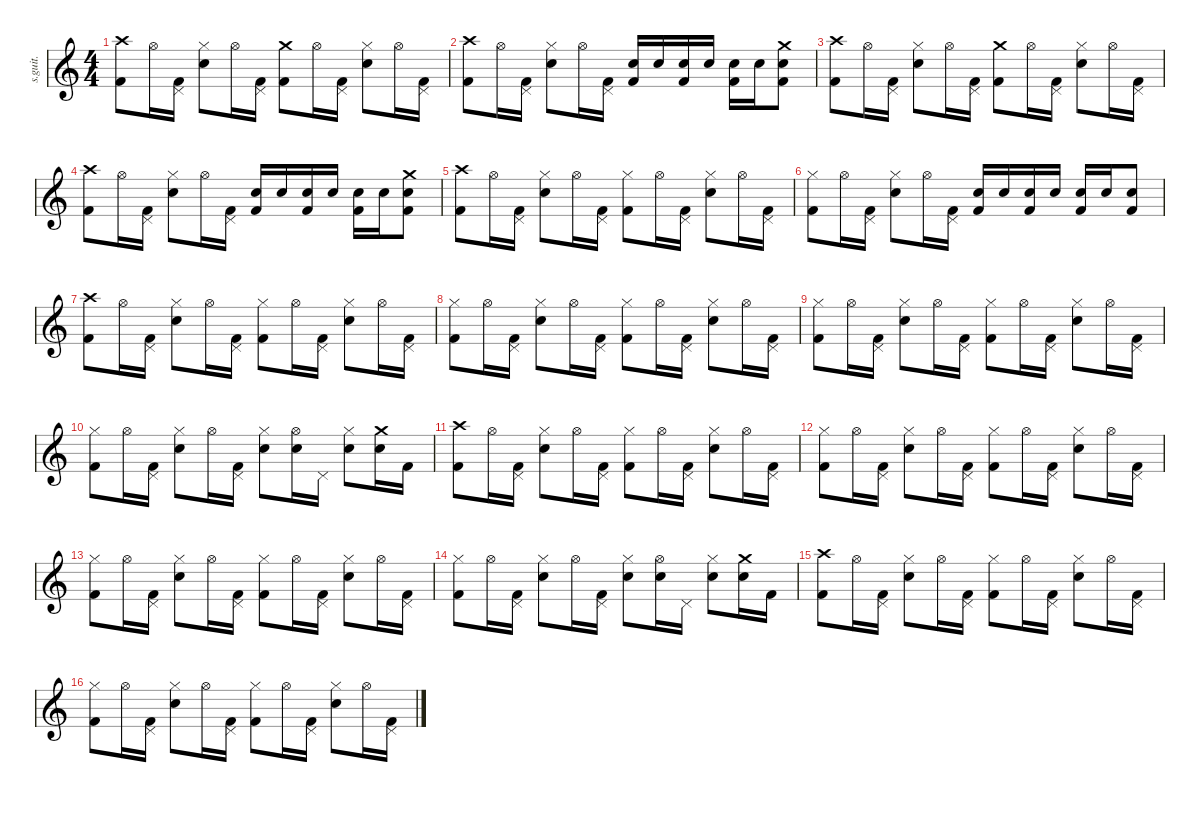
\defaultSystemsLayout 4
\hideDynamics
\bracketExtendMode nobrackets
\track ("Bob Burns (Drums)" "s.guit.") {instrument percussion}
\staff {score}
\articulation defaults
\ts (4 4)
\tempo (60 hide)
\clef g2
\ks c
("Crash high (hit)" "Kick (hit) 2").8{lyrics (0 "") lyrics (1 "") lyrics (2 "") lyrics (3 "") lyrics (4 "") dy f} "Hi-Hat (open)".16{lyrics (0 "") lyrics (1 "") lyrics (2 "") lyrics (3 "") lyrics (4 "")} ("Pedal Hi-Hat (hit)" "Kick (hit) 2").16{lyrics (0 "") lyrics (1 "") lyrics (2 "") lyrics (3 "") lyrics (4 "")} ("Hi-Hat (closed)" "Electric Snare (hit)").8{lyrics (0 "") lyrics (1 "") lyrics (2 "") lyrics (3 "") lyrics (4 "")} "Hi-Hat (open)".16{lyrics (0 "") lyrics (1 "") lyrics (2 "") lyrics (3 "") lyrics (4 "")} ("Pedal Hi-Hat (hit)" "Kick (hit) 2").16{lyrics (0 "") lyrics (1 "") lyrics (2 "") lyrics (3 "") lyrics (4 "")} ("Crash medium (hit)" "Kick (hit) 2").8{lyrics (0 "") lyrics (1 "") lyrics (2 "") lyrics (3 "") lyrics (4 "")} "Hi-Hat (open)".16{lyrics (0 "") lyrics (1 "") lyrics (2 "") lyrics (3 "") lyrics (4 "")} ("Pedal Hi-Hat (hit)" "Kick (hit) 2").16{lyrics (0 "") lyrics (1 "") lyrics (2 "") lyrics (3 "") lyrics (4 "")} ("Hi-Hat (closed)" "Electric Snare (hit)").8{lyrics (0 "") lyrics (1 "") lyrics (2 "") lyrics (3 "") lyrics (4 "")} "Hi-Hat (open)".16{lyrics (0 "") lyrics (1 "") lyrics (2 "") lyrics (3 "") lyrics (4 "")} ("Pedal Hi-Hat (hit)" "Kick (hit) 2").16{lyrics (0 "") lyrics (1 "") lyrics (2 "") lyrics (3 "") lyrics (4 "")} |
("Crash high (hit)" "Kick (hit) 2").8{lyrics (0 "") lyrics (1 "") lyrics (2 "") lyrics (3 "") lyrics (4 "")} "Hi-Hat (open)".16{lyrics (0 "") lyrics (1 "") lyrics (2 "") lyrics (3 "") lyrics (4 "")} ("Pedal Hi-Hat (hit)" "Kick (hit) 2").16{lyrics (0 "") lyrics (1 "") lyrics (2 "") lyrics (3 "") lyrics (4 "")} ("Hi-Hat (closed)" "Electric Snare (hit)").8{lyrics (0 "") lyrics (1 "") lyrics (2 "") lyrics (3 "") lyrics (4 "")} "Hi-Hat (open)".16{lyrics (0 "") lyrics (1 "") lyrics (2 "") lyrics (3 "") lyrics (4 "")} ("Pedal Hi-Hat (hit)" "Kick (hit) 2").16{lyrics (0 "") lyrics (1 "") lyrics (2 "") lyrics (3 "") lyrics (4 "")} ("Electric Snare (hit)" "Kick (hit) 2").16{lyrics (0 "") lyrics (1 "") lyrics (2 "") lyrics (3 "") lyrics (4 "")} "Electric Snare (hit)".16{lyrics (0 "") lyrics (1 "") lyrics (2 "") lyrics (3 "") lyrics (4 "")} ("Electric Snare (hit)" "Kick (hit) 2").16{lyrics (0 "") lyrics (1 "") lyrics (2 "") lyrics (3 "") lyrics (4 "")} "Electric Snare (hit)".16{lyrics (0 "") lyrics (1 "") lyrics (2 "") lyrics (3 "") lyrics (4 "")} ("Electric Snare (hit)" "Kick (hit) 2").16{lyrics (0 "") lyrics (1 "") lyrics (2 "") lyrics (3 "") lyrics (4 "")} "Electric Snare (hit)".16{lyrics (0 "") lyrics (1 "") lyrics (2 "") lyrics (3 "") lyrics (4 "")} ("Crash medium (hit)" "Electric Snare (hit)" "Kick (hit) 2").8{lyrics (0 "") lyrics (1 "") lyrics (2 "") lyrics (3 "") lyrics (4 "")} |
("Crash high (hit)" "Kick (hit) 2").8{lyrics (0 "") lyrics (1 "") lyrics (2 "") lyrics (3 "") lyrics (4 "")} "Hi-Hat (open)".16{lyrics (0 "") lyrics (1 "") lyrics (2 "") lyrics (3 "") lyrics (4 "")} ("Pedal Hi-Hat (hit)" "Kick (hit) 2").16{lyrics (0 "") lyrics (1 "") lyrics (2 "") lyrics (3 "") lyrics (4 "")} ("Hi-Hat (closed)" "Electric Snare (hit)").8{lyrics (0 "") lyrics (1 "") lyrics (2 "") lyrics (3 "") lyrics (4 "")} "Hi-Hat (open)".16{lyrics (0 "") lyrics (1 "") lyrics (2 "") lyrics (3 "") lyrics (4 "")} ("Pedal Hi-Hat (hit)" "Kick (hit) 2").16{lyrics (0 "") lyrics (1 "") lyrics (2 "") lyrics (3 "") lyrics (4 "")} ("Crash medium (hit)" "Kick (hit) 2").8{lyrics (0 "") lyrics (1 "") lyrics (2 "") lyrics (3 "") lyrics (4 "")} "Hi-Hat (open)".16{lyrics (0 "") lyrics (1 "") lyrics (2 "") lyrics (3 "") lyrics (4 "")} ("Pedal Hi-Hat (hit)" "Kick (hit) 2").16{lyrics (0 "") lyrics (1 "") lyrics (2 "") lyrics (3 "") lyrics (4 "")} ("Hi-Hat (closed)" "Electric Snare (hit)").8{lyrics (0 "") lyrics (1 "") lyrics (2 "") lyrics (3 "") lyrics (4 "")} "Hi-Hat (open)".16{lyrics (0 "") lyrics (1 "") lyrics (2 "") lyrics (3 "") lyrics (4 "")} ("Pedal Hi-Hat (hit)" "Kick (hit) 2").16{lyrics (0 "") lyrics (1 "") lyrics (2 "") lyrics (3 "") lyrics (4 "")} |
("Crash high (hit)" "Kick (hit) 2").8{lyrics (0 "") lyrics (1 "") lyrics (2 "") lyrics (3 "") lyrics (4 "")} "Hi-Hat (open)".16{lyrics (0 "") lyrics (1 "") lyrics (2 "") lyrics (3 "") lyrics (4 "")} ("Pedal Hi-Hat (hit)" "Kick (hit) 2").16{lyrics (0 "") lyrics (1 "") lyrics (2 "") lyrics (3 "") lyrics (4 "")} ("Hi-Hat (closed)" "Electric Snare (hit)").8{lyrics (0 "") lyrics (1 "") lyrics (2 "") lyrics (3 "") lyrics (4 "")} "Hi-Hat (open)".16{lyrics (0 "") lyrics (1 "") lyrics (2 "") lyrics (3 "") lyrics (4 "")} ("Pedal Hi-Hat (hit)" "Kick (hit) 2").16{lyrics (0 "") lyrics (1 "") lyrics (2 "") lyrics (3 "") lyrics (4 "")} ("Electric Snare (hit)" "Kick (hit) 2").16{lyrics (0 "") lyrics (1 "") lyrics (2 "") lyrics (3 "") lyrics (4 "")} "Electric Snare (hit)".16{lyrics (0 "") lyrics (1 "") lyrics (2 "") lyrics (3 "") lyrics (4 "")} ("Electric Snare (hit)" "Kick (hit) 2").16{lyrics (0 "") lyrics (1 "") lyrics (2 "") lyrics (3 "") lyrics (4 "")} "Electric Snare (hit)".16{lyrics (0 "") lyrics (1 "") lyrics (2 "") lyrics (3 "") lyrics (4 "")} ("Electric Snare (hit)" "Kick (hit) 2").16{lyrics (0 "") lyrics (1 "") lyrics (2 "") lyrics (3 "") lyrics (4 "")} "Electric Snare (hit)".16{lyrics (0 "") lyrics (1 "") lyrics (2 "") lyrics (3 "") lyrics (4 "")} ("Crash medium (hit)" "Electric Snare (hit)" "Kick (hit) 2").8{lyrics (0 "") lyrics (1 "") lyrics (2 "") lyrics (3 "") lyrics (4 "")} |
("Crash high (hit)" "Kick (hit) 2").8{lyrics (0 "") lyrics (1 "") lyrics (2 "") lyrics (3 "") lyrics (4 "")} "Hi-Hat (open)".16{lyrics (0 "") lyrics (1 "") lyrics (2 "") lyrics (3 "") lyrics (4 "")} ("Pedal Hi-Hat (hit)" "Kick (hit) 2").16{lyrics (0 "") lyrics (1 "") lyrics (2 "") lyrics (3 "") lyrics (4 "")} ("Hi-Hat (closed)" "Electric Snare (hit)").8{lyrics (0 "") lyrics (1 "") lyrics (2 "") lyrics (3 "") lyrics (4 "")} "Hi-Hat (open)".16{lyrics (0 "") lyrics (1 "") lyrics (2 "") lyrics (3 "") lyrics (4 "")} ("Pedal Hi-Hat (hit)" "Kick (hit) 2").16{lyrics (0 "") lyrics (1 "") lyrics (2 "") lyrics (3 "") lyrics (4 "")} ("Hi-Hat (closed)" "Kick (hit) 2").8{lyrics (0 "") lyrics (1 "") lyrics (2 "") lyrics (3 "") lyrics (4 "")} "Hi-Hat (open)".16{lyrics (0 "") lyrics (1 "") lyrics (2 "") lyrics (3 "") lyrics (4 "")} ("Pedal Hi-Hat (hit)" "Kick (hit) 2").16{lyrics (0 "") lyrics (1 "") lyrics (2 "") lyrics (3 "") lyrics (4 "")} ("Hi-Hat (closed)" "Electric Snare (hit)").8{lyrics (0 "") lyrics (1 "") lyrics (2 "") lyrics (3 "") lyrics (4 "")} "Hi-Hat (open)".16{lyrics (0 "") lyrics (1 "") lyrics (2 "") lyrics (3 "") lyrics (4 "")} ("Pedal Hi-Hat (hit)" "Kick (hit) 2").16{lyrics (0 "") lyrics (1 "") lyrics (2 "") lyrics (3 "") lyrics (4 "")} |
("Hi-Hat (closed)" "Kick (hit) 2").8{lyrics (0 "") lyrics (1 "") lyrics (2 "") lyrics (3 "") lyrics (4 "")} "Hi-Hat (open)".16{lyrics (0 "") lyrics (1 "") lyrics (2 "") lyrics (3 "") lyrics (4 "")} ("Pedal Hi-Hat (hit)" "Kick (hit) 2").16{lyrics (0 "") lyrics (1 "") lyrics (2 "") lyrics (3 "") lyrics (4 "")} ("Hi-Hat (closed)" "Electric Snare (hit)").8{lyrics (0 "") lyrics (1 "") lyrics (2 "") lyrics (3 "") lyrics (4 "")} "Hi-Hat (open)".16{lyrics (0 "") lyrics (1 "") lyrics (2 "") lyrics (3 "") lyrics (4 "")} ("Pedal Hi-Hat (hit)" "Kick (hit) 2").16{lyrics (0 "") lyrics (1 "") lyrics (2 "") lyrics (3 "") lyrics (4 "")} ("Electric Snare (hit)" "Kick (hit) 2").16{lyrics (0 "") lyrics (1 "") lyrics (2 "") lyrics (3 "") lyrics (4 "")} "Electric Snare (hit)".16{lyrics (0 "") lyrics (1 "") lyrics (2 "") lyrics (3 "") lyrics (4 "")} ("Electric Snare (hit)" "Kick (hit) 2").16{lyrics (0 "") lyrics (1 "") lyrics (2 "") lyrics (3 "") lyrics (4 "")} "Electric Snare (hit)".16{lyrics (0 "") lyrics (1 "") lyrics (2 "") lyrics (3 "") lyrics (4 "")} ("Electric Snare (hit)" "Kick (hit) 2").16{lyrics (0 "") lyrics (1 "") lyrics (2 "") lyrics (3 "") lyrics (4 "")} "Electric Snare (hit)".16{lyrics (0 "") lyrics (1 "") lyrics (2 "") lyrics (3 "") lyrics (4 "")} ("Electric Snare (hit)" "Kick (hit) 2").8{lyrics (0 "") lyrics (1 "") lyrics (2 "") lyrics (3 "") lyrics (4 "")} |
("Crash high (hit)" "Kick (hit) 2").8{lyrics (0 "") lyrics (1 "") lyrics (2 "") lyrics (3 "") lyrics (4 "")} "Hi-Hat (open)".16{lyrics (0 "") lyrics (1 "") lyrics (2 "") lyrics (3 "") lyrics (4 "")} ("Pedal Hi-Hat (hit)" "Kick (hit) 2").16{lyrics (0 "") lyrics (1 "") lyrics (2 "") lyrics (3 "") lyrics (4 "")} ("Hi-Hat (closed)" "Electric Snare (hit)").8{lyrics (0 "") lyrics (1 "") lyrics (2 "") lyrics (3 "") lyrics (4 "")} "Hi-Hat (open)".16{lyrics (0 "") lyrics (1 "") lyrics (2 "") lyrics (3 "") lyrics (4 "")} ("Pedal Hi-Hat (hit)" "Kick (hit) 2").16{lyrics (0 "") lyrics (1 "") lyrics (2 "") lyrics (3 "") lyrics (4 "")} ("Hi-Hat (closed)" "Kick (hit) 2").8{lyrics (0 "") lyrics (1 "") lyrics (2 "") lyrics (3 "") lyrics (4 "")} "Hi-Hat (open)".16{lyrics (0 "") lyrics (1 "") lyrics (2 "") lyrics (3 "") lyrics (4 "")} ("Pedal Hi-Hat (hit)" "Kick (hit) 2").16{lyrics (0 "") lyrics (1 "") lyrics (2 "") lyrics (3 "") lyrics (4 "")} ("Hi-Hat (closed)" "Electric Snare (hit)").8{lyrics (0 "") lyrics (1 "") lyrics (2 "") lyrics (3 "") lyrics (4 "")} "Hi-Hat (open)".16{lyrics (0 "") lyrics (1 "") lyrics (2 "") lyrics (3 "") lyrics (4 "")} ("Pedal Hi-Hat (hit)" "Kick (hit) 2").16{lyrics (0 "") lyrics (1 "") lyrics (2 "") lyrics (3 "") lyrics (4 "")} |
("Hi-Hat (closed)" "Kick (hit) 2").8{lyrics (0 "") lyrics (1 "") lyrics (2 "") lyrics (3 "") lyrics (4 "")} "Hi-Hat (open)".16{lyrics (0 "") lyrics (1 "") lyrics (2 "") lyrics (3 "") lyrics (4 "")} ("Pedal Hi-Hat (hit)" "Kick (hit) 2").16{lyrics (0 "") lyrics (1 "") lyrics (2 "") lyrics (3 "") lyrics (4 "")} ("Hi-Hat (closed)" "Electric Snare (hit)").8{lyrics (0 "") lyrics (1 "") lyrics (2 "") lyrics (3 "") lyrics (4 "")} "Hi-Hat (open)".16{lyrics (0 "") lyrics (1 "") lyrics (2 "") lyrics (3 "") lyrics (4 "")} ("Pedal Hi-Hat (hit)" "Kick (hit) 2").16{lyrics (0 "") lyrics (1 "") lyrics (2 "") lyrics (3 "") lyrics (4 "")} ("Hi-Hat (closed)" "Kick (hit) 2").8{lyrics (0 "") lyrics (1 "") lyrics (2 "") lyrics (3 "") lyrics (4 "")} "Hi-Hat (open)".16{lyrics (0 "") lyrics (1 "") lyrics (2 "") lyrics (3 "") lyrics (4 "")} ("Pedal Hi-Hat (hit)" "Kick (hit) 2").16{lyrics (0 "") lyrics (1 "") lyrics (2 "") lyrics (3 "") lyrics (4 "")} ("Hi-Hat (closed)" "Electric Snare (hit)").8{lyrics (0 "") lyrics (1 "") lyrics (2 "") lyrics (3 "") lyrics (4 "")} "Hi-Hat (open)".16{lyrics (0 "") lyrics (1 "") lyrics (2 "") lyrics (3 "") lyrics (4 "")} ("Pedal Hi-Hat (hit)" "Kick (hit) 2").16{lyrics (0 "") lyrics (1 "") lyrics (2 "") lyrics (3 "") lyrics (4 "")} |
("Hi-Hat (closed)" "Kick (hit) 2").8{lyrics (0 "") lyrics (1 "") lyrics (2 "") lyrics (3 "") lyrics (4 "")} "Hi-Hat (open)".16{lyrics (0 "") lyrics (1 "") lyrics (2 "") lyrics (3 "") lyrics (4 "")} ("Pedal Hi-Hat (hit)" "Kick (hit) 2").16{lyrics (0 "") lyrics (1 "") lyrics (2 "") lyrics (3 "") lyrics (4 "")} ("Hi-Hat (closed)" "Electric Snare (hit)").8{lyrics (0 "") lyrics (1 "") lyrics (2 "") lyrics (3 "") lyrics (4 "")} "Hi-Hat (open)".16{lyrics (0 "") lyrics (1 "") lyrics (2 "") lyrics (3 "") lyrics (4 "")} ("Pedal Hi-Hat (hit)" "Kick (hit) 2").16{lyrics (0 "") lyrics (1 "") lyrics (2 "") lyrics (3 "") lyrics (4 "")} ("Hi-Hat (closed)" "Kick (hit) 2").8{lyrics (0 "") lyrics (1 "") lyrics (2 "") lyrics (3 "") lyrics (4 "")} "Hi-Hat (open)".16{lyrics (0 "") lyrics (1 "") lyrics (2 "") lyrics (3 "") lyrics (4 "")} ("Pedal Hi-Hat (hit)" "Kick (hit) 2").16{lyrics (0 "") lyrics (1 "") lyrics (2 "") lyrics (3 "") lyrics (4 "")} ("Hi-Hat (closed)" "Electric Snare (hit)").8{lyrics (0 "") lyrics (1 "") lyrics (2 "") lyrics (3 "") lyrics (4 "")} "Hi-Hat (open)".16{lyrics (0 "") lyrics (1 "") lyrics (2 "") lyrics (3 "") lyrics (4 "")} ("Pedal Hi-Hat (hit)" "Kick (hit) 2").16{lyrics (0 "") lyrics (1 "") lyrics (2 "") lyrics (3 "") lyrics (4 "")} |
("Hi-Hat (closed)" "Kick (hit) 2").8{lyrics (0 "") lyrics (1 "") lyrics (2 "") lyrics (3 "") lyrics (4 "")} "Hi-Hat (open)".16{lyrics (0 "") lyrics (1 "") lyrics (2 "") lyrics (3 "") lyrics (4 "")} ("Pedal Hi-Hat (hit)" "Kick (hit) 2").16{lyrics (0 "") lyrics (1 "") lyrics (2 "") lyrics (3 "") lyrics (4 "")} ("Hi-Hat (closed)" "Electric Snare (hit)").8{lyrics (0 "") lyrics (1 "") lyrics (2 "") lyrics (3 "") lyrics (4 "")} "Hi-Hat (open)".16{lyrics (0 "") lyrics (1 "") lyrics (2 "") lyrics (3 "") lyrics (4 "")} ("Pedal Hi-Hat (hit)" "Kick (hit) 2").16{lyrics (0 "") lyrics (1 "") lyrics (2 "") lyrics (3 "") lyrics (4 "")} ("Hi-Hat (closed)" "Electric Snare (hit)").8{lyrics (0 "") lyrics (1 "") lyrics (2 "") lyrics (3 "") lyrics (4 "")} ("Hi-Hat (open)" "Electric Snare (hit)").16{lyrics (0 "") lyrics (1 "") lyrics (2 "") lyrics (3 "") lyrics (4 "")} "Pedal Hi-Hat (hit)".16{lyrics (0 "") lyrics (1 "") lyrics (2 "") lyrics (3 "") lyrics (4 "")} ("Hi-Hat (closed)" "Electric Snare (hit)").8{lyrics (0 "") lyrics (1 "") lyrics (2 "") lyrics (3 "") lyrics (4 "")} ("Crash medium (hit)" "Electric Snare (hit)").16{lyrics (0 "") lyrics (1 "") lyrics (2 "") lyrics (3 "") lyrics (4 "")} "Kick (hit) 2".16{lyrics (0 "") lyrics (1 "") lyrics (2 "") lyrics (3 "") lyrics (4 "")} |
("Crash high (hit)" "Kick (hit) 2").8{lyrics (0 "") lyrics (1 "") lyrics (2 "") lyrics (3 "") lyrics (4 "")} "Hi-Hat (open)".16{lyrics (0 "") lyrics (1 "") lyrics (2 "") lyrics (3 "") lyrics (4 "")} ("Pedal Hi-Hat (hit)" "Kick (hit) 2").16{lyrics (0 "") lyrics (1 "") lyrics (2 "") lyrics (3 "") lyrics (4 "")} ("Hi-Hat (closed)" "Electric Snare (hit)").8{lyrics (0 "") lyrics (1 "") lyrics (2 "") lyrics (3 "") lyrics (4 "")} "Hi-Hat (open)".16{lyrics (0 "") lyrics (1 "") lyrics (2 "") lyrics (3 "") lyrics (4 "")} ("Pedal Hi-Hat (hit)" "Kick (hit) 2").16{lyrics (0 "") lyrics (1 "") lyrics (2 "") lyrics (3 "") lyrics (4 "")} ("Hi-Hat (closed)" "Kick (hit) 2").8{lyrics (0 "") lyrics (1 "") lyrics (2 "") lyrics (3 "") lyrics (4 "")} "Hi-Hat (open)".16{lyrics (0 "") lyrics (1 "") lyrics (2 "") lyrics (3 "") lyrics (4 "")} ("Pedal Hi-Hat (hit)" "Kick (hit) 2").16{lyrics (0 "") lyrics (1 "") lyrics (2 "") lyrics (3 "") lyrics (4 "")} ("Hi-Hat (closed)" "Electric Snare (hit)").8{lyrics (0 "") lyrics (1 "") lyrics (2 "") lyrics (3 "") lyrics (4 "")} "Hi-Hat (open)".16{lyrics (0 "") lyrics (1 "") lyrics (2 "") lyrics (3 "") lyrics (4 "")} ("Pedal Hi-Hat (hit)" "Kick (hit) 2").16{lyrics (0 "") lyrics (1 "") lyrics (2 "") lyrics (3 "") lyrics (4 "")} |
("Hi-Hat (closed)" "Kick (hit) 2").8{lyrics (0 "") lyrics (1 "") lyrics (2 "") lyrics (3 "") lyrics (4 "")} "Hi-Hat (open)".16{lyrics (0 "") lyrics (1 "") lyrics (2 "") lyrics (3 "") lyrics (4 "")} ("Pedal Hi-Hat (hit)" "Kick (hit) 2").16{lyrics (0 "") lyrics (1 "") lyrics (2 "") lyrics (3 "") lyrics (4 "")} ("Hi-Hat (closed)" "Electric Snare (hit)").8{lyrics (0 "") lyrics (1 "") lyrics (2 "") lyrics (3 "") lyrics (4 "")} "Hi-Hat (open)".16{lyrics (0 "") lyrics (1 "") lyrics (2 "") lyrics (3 "") lyrics (4 "")} ("Pedal Hi-Hat (hit)" "Kick (hit) 2").16{lyrics (0 "") lyrics (1 "") lyrics (2 "") lyrics (3 "") lyrics (4 "")} ("Hi-Hat (closed)" "Kick (hit) 2").8{lyrics (0 "") lyrics (1 "") lyrics (2 "") lyrics (3 "") lyrics (4 "")} "Hi-Hat (open)".16{lyrics (0 "") lyrics (1 "") lyrics (2 "") lyrics (3 "") lyrics (4 "")} ("Pedal Hi-Hat (hit)" "Kick (hit) 2").16{lyrics (0 "") lyrics (1 "") lyrics (2 "") lyrics (3 "") lyrics (4 "")} ("Hi-Hat (closed)" "Electric Snare (hit)").8{lyrics (0 "") lyrics (1 "") lyrics (2 "") lyrics (3 "") lyrics (4 "")} "Hi-Hat (open)".16{lyrics (0 "") lyrics (1 "") lyrics (2 "") lyrics (3 "") lyrics (4 "")} ("Pedal Hi-Hat (hit)" "Kick (hit) 2").16{lyrics (0 "") lyrics (1 "") lyrics (2 "") lyrics (3 "") lyrics (4 "")} |
("Hi-Hat (closed)" "Kick (hit) 2").8{lyrics (0 "") lyrics (1 "") lyrics (2 "") lyrics (3 "") lyrics (4 "")} "Hi-Hat (open)".16{lyrics (0 "") lyrics (1 "") lyrics (2 "") lyrics (3 "") lyrics (4 "")} ("Pedal Hi-Hat (hit)" "Kick (hit) 2").16{lyrics (0 "") lyrics (1 "") lyrics (2 "") lyrics (3 "") lyrics (4 "")} ("Hi-Hat (closed)" "Electric Snare (hit)").8{lyrics (0 "") lyrics (1 "") lyrics (2 "") lyrics (3 "") lyrics (4 "")} "Hi-Hat (open)".16{lyrics (0 "") lyrics (1 "") lyrics (2 "") lyrics (3 "") lyrics (4 "")} ("Pedal Hi-Hat (hit)" "Kick (hit) 2").16{lyrics (0 "") lyrics (1 "") lyrics (2 "") lyrics (3 "") lyrics (4 "")} ("Hi-Hat (closed)" "Kick (hit) 2").8{lyrics (0 "") lyrics (1 "") lyrics (2 "") lyrics (3 "") lyrics (4 "")} "Hi-Hat (open)".16{lyrics (0 "") lyrics (1 "") lyrics (2 "") lyrics (3 "") lyrics (4 "")} ("Pedal Hi-Hat (hit)" "Kick (hit) 2").16{lyrics (0 "") lyrics (1 "") lyrics (2 "") lyrics (3 "") lyrics (4 "")} ("Hi-Hat (closed)" "Electric Snare (hit)").8{lyrics (0 "") lyrics (1 "") lyrics (2 "") lyrics (3 "") lyrics (4 "")} "Hi-Hat (open)".16{lyrics (0 "") lyrics (1 "") lyrics (2 "") lyrics (3 "") lyrics (4 "")} ("Pedal Hi-Hat (hit)" "Kick (hit) 2").16{lyrics (0 "") lyrics (1 "") lyrics (2 "") lyrics (3 "") lyrics (4 "")} |
("Hi-Hat (closed)" "Kick (hit) 2").8{lyrics (0 "") lyrics (1 "") lyrics (2 "") lyrics (3 "") lyrics (4 "")} "Hi-Hat (open)".16{lyrics (0 "") lyrics (1 "") lyrics (2 "") lyrics (3 "") lyrics (4 "")} ("Pedal Hi-Hat (hit)" "Kick (hit) 2").16{lyrics (0 "") lyrics (1 "") lyrics (2 "") lyrics (3 "") lyrics (4 "")} ("Hi-Hat (closed)" "Electric Snare (hit)").8{lyrics (0 "") lyrics (1 "") lyrics (2 "") lyrics (3 "") lyrics (4 "")} "Hi-Hat (open)".16{lyrics (0 "") lyrics (1 "") lyrics (2 "") lyrics (3 "") lyrics (4 "")} ("Pedal Hi-Hat (hit)" "Kick (hit) 2").16{lyrics (0 "") lyrics (1 "") lyrics (2 "") lyrics (3 "") lyrics (4 "")} ("Hi-Hat (closed)" "Electric Snare (hit)").8{lyrics (0 "") lyrics (1 "") lyrics (2 "") lyrics (3 "") lyrics (4 "")} ("Hi-Hat (open)" "Electric Snare (hit)").16{lyrics (0 "") lyrics (1 "") lyrics (2 "") lyrics (3 "") lyrics (4 "")} "Pedal Hi-Hat (hit)".16{lyrics (0 "") lyrics (1 "") lyrics (2 "") lyrics (3 "") lyrics (4 "")} ("Hi-Hat (closed)" "Electric Snare (hit)").8{lyrics (0 "") lyrics (1 "") lyrics (2 "") lyrics (3 "") lyrics (4 "")} ("Crash medium (hit)" "Electric Snare (hit)").16{lyrics (0 "") lyrics (1 "") lyrics (2 "") lyrics (3 "") lyrics (4 "")} "Kick (hit) 2".16{lyrics (0 "") lyrics (1 "") lyrics (2 "") lyrics (3 "") lyrics (4 "")} |
("Crash high (hit)" "Kick (hit) 2").8{lyrics (0 "") lyrics (1 "") lyrics (2 "") lyrics (3 "") lyrics (4 "")} "Hi-Hat (open)".16{lyrics (0 "") lyrics (1 "") lyrics (2 "") lyrics (3 "") lyrics (4 "")} ("Pedal Hi-Hat (hit)" "Kick (hit) 2").16{lyrics (0 "") lyrics (1 "") lyrics (2 "") lyrics (3 "") lyrics (4 "")} ("Hi-Hat (closed)" "Electric Snare (hit)").8{lyrics (0 "") lyrics (1 "") lyrics (2 "") lyrics (3 "") lyrics (4 "")} "Hi-Hat (open)".16{lyrics (0 "") lyrics (1 "") lyrics (2 "") lyrics (3 "") lyrics (4 "")} ("Pedal Hi-Hat (hit)" "Kick (hit) 2").16{lyrics (0 "") lyrics (1 "") lyrics (2 "") lyrics (3 "") lyrics (4 "")} ("Hi-Hat (closed)" "Kick (hit) 2").8{lyrics (0 "") lyrics (1 "") lyrics (2 "") lyrics (3 "") lyrics (4 "")} "Hi-Hat (open)".16{lyrics (0 "") lyrics (1 "") lyrics (2 "") lyrics (3 "") lyrics (4 "")} ("Pedal Hi-Hat (hit)" "Kick (hit) 2").16{lyrics (0 "") lyrics (1 "") lyrics (2 "") lyrics (3 "") lyrics (4 "")} ("Hi-Hat (closed)" "Electric Snare (hit)").8{lyrics (0 "") lyrics (1 "") lyrics (2 "") lyrics (3 "") lyrics (4 "")} "Hi-Hat (open)".16{lyrics (0 "") lyrics (1 "") lyrics (2 "") lyrics (3 "") lyrics (4 "")} ("Pedal Hi-Hat (hit)" "Kick (hit) 2").16{lyrics (0 "") lyrics (1 "") lyrics (2 "") lyrics (3 "") lyrics (4 "")} |
("Hi-Hat (closed)" "Kick (hit) 2").8{lyrics (0 "") lyrics (1 "") lyrics (2 "") lyrics (3 "") lyrics (4 "")} "Hi-Hat (open)".16{lyrics (0 "") lyrics (1 "") lyrics (2 "") lyrics (3 "") lyrics (4 "")} ("Pedal Hi-Hat (hit)" "Kick (hit) 2").16{lyrics (0 "") lyrics (1 "") lyrics (2 "") lyrics (3 "") lyrics (4 "")} ("Hi-Hat (closed)" "Electric Snare (hit)").8{lyrics (0 "") lyrics (1 "") lyrics (2 "") lyrics (3 "") lyrics (4 "")} "Hi-Hat (open)".16{lyrics (0 "") lyrics (1 "") lyrics (2 "") lyrics (3 "") lyrics (4 "")} ("Pedal Hi-Hat (hit)" "Kick (hit) 2").16{lyrics (0 "") lyrics (1 "") lyrics (2 "") lyrics (3 "") lyrics (4 "")} ("Hi-Hat (closed)" "Kick (hit) 2").8{lyrics (0 "") lyrics (1 "") lyrics (2 "") lyrics (3 "") lyrics (4 "")} "Hi-Hat (open)".16{lyrics (0 "") lyrics (1 "") lyrics (2 "") lyrics (3 "") lyrics (4 "")} ("Pedal Hi-Hat (hit)" "Kick (hit) 2").16{lyrics (0 "") lyrics (1 "") lyrics (2 "") lyrics (3 "") lyrics (4 "")} ("Hi-Hat (closed)" "Electric Snare (hit)").8{lyrics (0 "") lyrics (1 "") lyrics (2 "") lyrics (3 "") lyrics (4 "")} "Hi-Hat (open)".16{lyrics (0 "") lyrics (1 "") lyrics (2 "") lyrics (3 "") lyrics (4 "")} ("Pedal Hi-Hat (hit)" "Kick (hit) 2").16{lyrics (0 "") lyrics (1 "") lyrics (2 "") lyrics (3 "") lyrics (4 "")}
